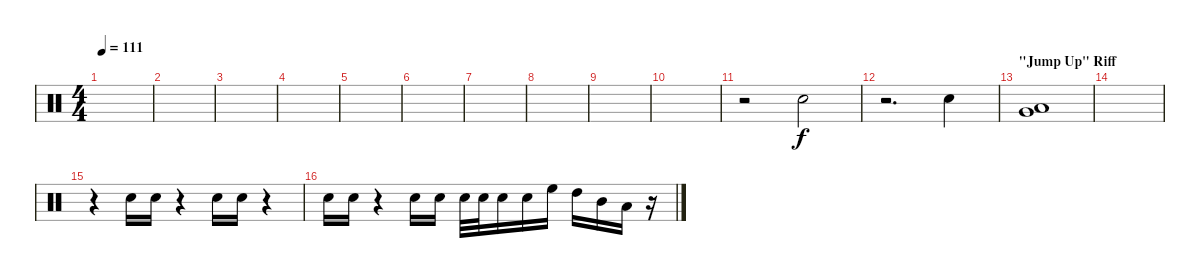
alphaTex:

\track "" {instrument percussion}
\staff {score}
\articulation defaults
\ts (4 4)
\tempo 111
\clef neutral
\ks c
|
|
|
|
|
|
|
|
|
|
r.2 "Electric Snare (hit)".2 |
r.2{d} "Electric Snare (hit)".4 |
\section ("" "\"Jump Up\" Riff")
("Low Tom (hit)" "Very Low Tom (hit)").1 |
|
r.4 "Electric Snare (hit)".16 "Electric Snare (hit)".16 r.4 "Electric Snare (hit)".16 "Electric Snare (hit)".16 r.4 |
"Electric Snare (hit)".16 "Electric Snare (hit)".16 r.4 "Electric Snare (hit)".16 "Electric Snare (hit)".16 "Electric Snare (hit)".32 "Electric Snare (hit)".32 "Electric Snare (hit)".16 "Electric Snare (hit)".16 "High Floor Tom (hit)".16 "High Tom (hit)".16 "Mid Tom (hit)".16 "Low Tom (hit)".16 r.16
